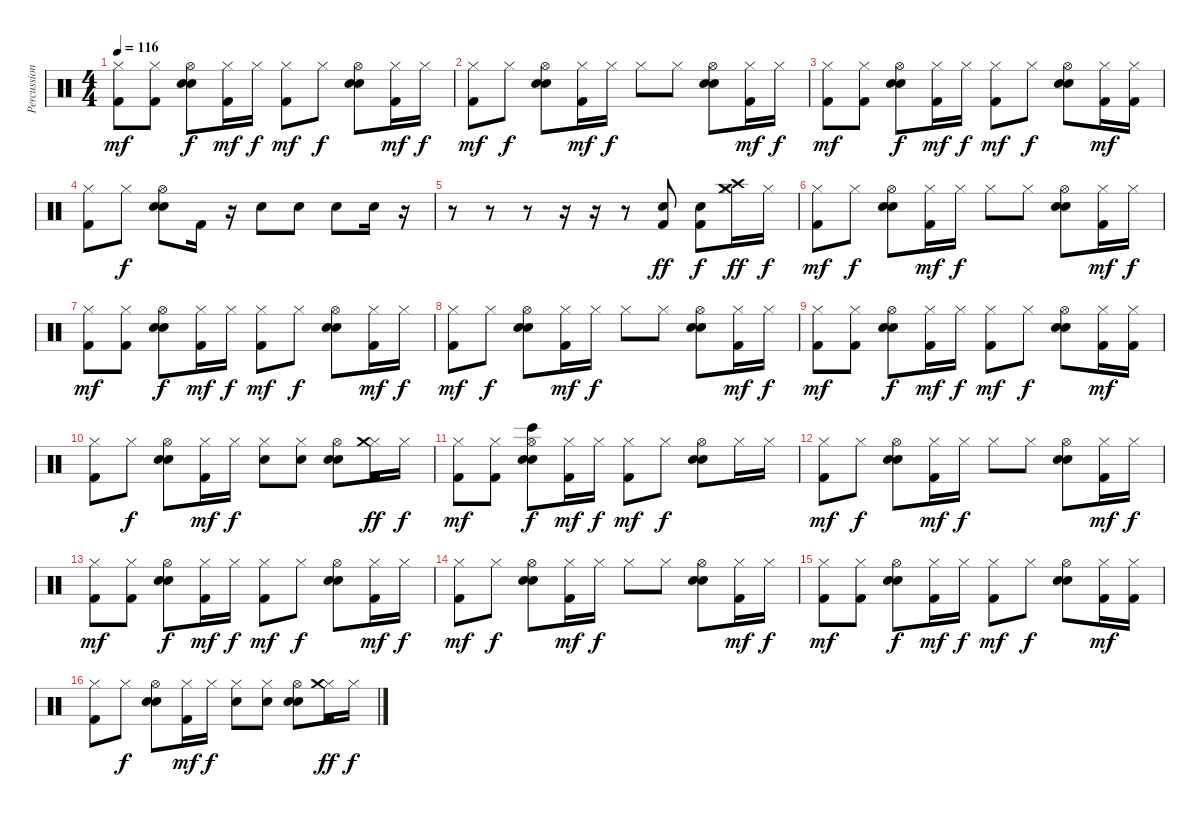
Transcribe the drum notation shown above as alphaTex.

\track ("Percussion" "Percussion") {instrument percussion}
\staff {score}
\articulation defaults
\ts (4 4)
\tempo 116
\clef neutral
\ks c
("Hi-Hat (closed)" "Kick (hit) 2").8{dy mf} ("Hi-Hat (closed)" "Kick (hit) 2").8 ("Hi-Hat (open)" "Electric Snare (hit)" "Hand Clap (hit)").8{dy f} ("Hi-Hat (closed)" "Kick (hit) 2").16{dy mf} "Hi-Hat (closed)".16{dy f} ("Hi-Hat (closed)" "Kick (hit) 2").8{dy mf} "Hi-Hat (closed)".8{dy f} ("Hi-Hat (open)" "Electric Snare (hit)" "Hand Clap (hit)").8 ("Hi-Hat (closed)" "Kick (hit) 2").16{dy mf} "Hi-Hat (closed)".16{dy f} |
("Hi-Hat (closed)" "Kick (hit) 2").8{dy mf} "Hi-Hat (closed)".8{dy f} ("Hi-Hat (open)" "Electric Snare (hit)" "Hand Clap (hit)").8 ("Hi-Hat (closed)" "Kick (hit) 2").16{dy mf} "Hi-Hat (closed)".16{dy f} "Hi-Hat (closed)".8 "Hi-Hat (closed)".8 ("Hi-Hat (open)" "Electric Snare (hit)" "Hand Clap (hit)").8 ("Hi-Hat (closed)" "Kick (hit) 2").16{dy mf} "Hi-Hat (closed)".16{dy f} |
("Hi-Hat (closed)" "Kick (hit) 2").8{dy mf} ("Hi-Hat (closed)" "Kick (hit) 2").8 ("Hi-Hat (open)" "Electric Snare (hit)" "Hand Clap (hit)").8{dy f} ("Hi-Hat (closed)" "Kick (hit) 2").16{dy mf} "Hi-Hat (closed)".16{dy f} ("Hi-Hat (closed)" "Kick (hit) 2").8{dy mf} "Hi-Hat (closed)".8{dy f} ("Hi-Hat (open)" "Electric Snare (hit)" "Hand Clap (hit)").8 ("Hi-Hat (closed)" "Kick (hit) 2").16{dy mf} ("Hi-Hat (closed)" "Kick (hit) 2").16 |
("Hi-Hat (closed)" "Kick (hit) 2").8 "Hi-Hat (closed)".8{dy f} ("Hi-Hat (open)" "Electric Snare (hit)" "Hand Clap (hit)").8 "Kick (hit) 2".16 r.16 "Electric Snare (hit)".8 "Electric Snare (hit)".8 "Electric Snare (hit)".8 "Electric Snare (hit)".16 r.16 |
r.8 r.8 r.8 r.16 r.16 r.8 ("Kick (hit) 2" "Electric Snare (hit)").8{dy ff} ("Electric Snare (hit)" "Kick (hit) 2").8{dy f} ("Hi-Hat (closed)" "Crash high (hit)" "Crash medium (hit)").16{dy ff} "Hi-Hat (closed)".16{dy f} |
("Hi-Hat (closed)" "Kick (hit) 2").8{dy mf} "Hi-Hat (closed)".8{dy f} ("Hi-Hat (open)" "Electric Snare (hit)" "Hand Clap (hit)").8 ("Hi-Hat (closed)" "Kick (hit) 2").16{dy mf} "Hi-Hat (closed)".16{dy f} "Hi-Hat (closed)".8 "Hi-Hat (closed)".8 ("Hi-Hat (open)" "Electric Snare (hit)" "Hand Clap (hit)").8 ("Hi-Hat (closed)" "Kick (hit) 2").16{dy mf} "Hi-Hat (closed)".16{dy f} |
("Hi-Hat (closed)" "Kick (hit) 2").8{dy mf} ("Hi-Hat (closed)" "Kick (hit) 2").8 ("Hi-Hat (open)" "Electric Snare (hit)" "Hand Clap (hit)").8{dy f} ("Hi-Hat (closed)" "Kick (hit) 2").16{dy mf} "Hi-Hat (closed)".16{dy f} ("Hi-Hat (closed)" "Kick (hit) 2").8{dy mf} "Hi-Hat (closed)".8{dy f} ("Hi-Hat (open)" "Electric Snare (hit)" "Hand Clap (hit)").8 ("Hi-Hat (closed)" "Kick (hit) 2").16{dy mf} "Hi-Hat (closed)".16{dy f} |
("Hi-Hat (closed)" "Kick (hit) 2").8{dy mf} "Hi-Hat (closed)".8{dy f} ("Hi-Hat (open)" "Electric Snare (hit)" "Hand Clap (hit)").8 ("Hi-Hat (closed)" "Kick (hit) 2").16{dy mf} "Hi-Hat (closed)".16{dy f} "Hi-Hat (closed)".8 "Hi-Hat (closed)".8 ("Hi-Hat (open)" "Electric Snare (hit)" "Hand Clap (hit)").8 ("Hi-Hat (closed)" "Kick (hit) 2").16{dy mf} "Hi-Hat (closed)".16{dy f} |
("Hi-Hat (closed)" "Kick (hit) 2").8{dy mf} ("Hi-Hat (closed)" "Kick (hit) 2").8 ("Hi-Hat (open)" "Electric Snare (hit)" "Hand Clap (hit)").8{dy f} ("Hi-Hat (closed)" "Kick (hit) 2").16{dy mf} "Hi-Hat (closed)".16{dy f} ("Hi-Hat (closed)" "Kick (hit) 2").8{dy mf} "Hi-Hat (closed)".8{dy f} ("Hi-Hat (open)" "Electric Snare (hit)" "Hand Clap (hit)").8 ("Hi-Hat (closed)" "Kick (hit) 2").16{dy mf} ("Hi-Hat (closed)" "Kick (hit) 2").16 |
("Hi-Hat (closed)" "Kick (hit) 2").8 "Hi-Hat (closed)".8{dy f} ("Hi-Hat (open)" "Electric Snare (hit)" "Hand Clap (hit)").8 ("Hi-Hat (closed)" "Kick (hit) 2").16{dy mf} "Hi-Hat (closed)".16{dy f} ("Hi-Hat (closed)" "Electric Snare (hit)").8 ("Hi-Hat (closed)" "Electric Snare (hit)").8 ("Hi-Hat (open)" "Electric Snare (hit)" "Hand Clap (hit)").8 ("Hi-Hat (closed)" "Kick (hit) 2" "Crash medium (hit)").16{dy ff} "Hi-Hat (closed)".16{dy f} |
("Hi-Hat (closed)" "Kick (hit) 2").8{dy mf} ("Hi-Hat (closed)" "Kick (hit) 2").8 ("Hi-Hat (open)" "Electric Snare (hit)" "Hand Clap (hit)" "Bongo High (hit)").8{dy f} ("Hi-Hat (closed)" "Kick (hit) 2").16{dy mf} "Hi-Hat (closed)".16{dy f} ("Hi-Hat (closed)" "Kick (hit) 2").8{dy mf} "Hi-Hat (closed)".8{dy f} ("Hi-Hat (open)" "Electric Snare (hit)" "Hand Clap (hit)").8 "Hi-Hat (closed)".16 "Hi-Hat (closed)".16 |
("Hi-Hat (closed)" "Kick (hit) 2").8{dy mf} "Hi-Hat (closed)".8{dy f} ("Hi-Hat (open)" "Electric Snare (hit)" "Hand Clap (hit)").8 ("Hi-Hat (closed)" "Kick (hit) 2").16{dy mf} "Hi-Hat (closed)".16{dy f} "Hi-Hat (closed)".8 "Hi-Hat (closed)".8 ("Hi-Hat (open)" "Electric Snare (hit)" "Hand Clap (hit)").8 ("Hi-Hat (closed)" "Kick (hit) 2").16{dy mf} "Hi-Hat (closed)".16{dy f} |
("Hi-Hat (closed)" "Kick (hit) 2").8{dy mf} ("Hi-Hat (closed)" "Kick (hit) 2").8 ("Hi-Hat (open)" "Electric Snare (hit)" "Hand Clap (hit)").8{dy f} ("Hi-Hat (closed)" "Kick (hit) 2").16{dy mf} "Hi-Hat (closed)".16{dy f} ("Hi-Hat (closed)" "Kick (hit) 2").8{dy mf} "Hi-Hat (closed)".8{dy f} ("Hi-Hat (open)" "Electric Snare (hit)" "Hand Clap (hit)").8 ("Hi-Hat (closed)" "Kick (hit) 2").16{dy mf} "Hi-Hat (closed)".16{dy f} |
("Hi-Hat (closed)" "Kick (hit) 2").8{dy mf} "Hi-Hat (closed)".8{dy f} ("Hi-Hat (open)" "Electric Snare (hit)" "Hand Clap (hit)").8 ("Hi-Hat (closed)" "Kick (hit) 2").16{dy mf} "Hi-Hat (closed)".16{dy f} "Hi-Hat (closed)".8 "Hi-Hat (closed)".8 ("Hi-Hat (open)" "Electric Snare (hit)" "Hand Clap (hit)").8 ("Hi-Hat (closed)" "Kick (hit) 2").16{dy mf} "Hi-Hat (closed)".16{dy f} |
("Hi-Hat (closed)" "Kick (hit) 2").8{dy mf} ("Hi-Hat (closed)" "Kick (hit) 2").8 ("Hi-Hat (open)" "Electric Snare (hit)" "Hand Clap (hit)").8{dy f} ("Hi-Hat (closed)" "Kick (hit) 2").16{dy mf} "Hi-Hat (closed)".16{dy f} ("Hi-Hat (closed)" "Kick (hit) 2").8{dy mf} "Hi-Hat (closed)".8{dy f} ("Hi-Hat (open)" "Electric Snare (hit)" "Hand Clap (hit)").8 ("Hi-Hat (closed)" "Kick (hit) 2").16{dy mf} ("Hi-Hat (closed)" "Kick (hit) 2").16 |
("Hi-Hat (closed)" "Kick (hit) 2").8 "Hi-Hat (closed)".8{dy f} ("Hi-Hat (open)" "Electric Snare (hit)" "Hand Clap (hit)").8 ("Hi-Hat (closed)" "Kick (hit) 2").16{dy mf} "Hi-Hat (closed)".16{dy f} ("Hi-Hat (closed)" "Electric Snare (hit)").8 ("Hi-Hat (closed)" "Electric Snare (hit)").8 ("Hi-Hat (open)" "Electric Snare (hit)" "Hand Clap (hit)").8 ("Hi-Hat (closed)" "Kick (hit) 2" "Crash medium (hit)").16{dy ff} "Hi-Hat (closed)".16{dy f}
